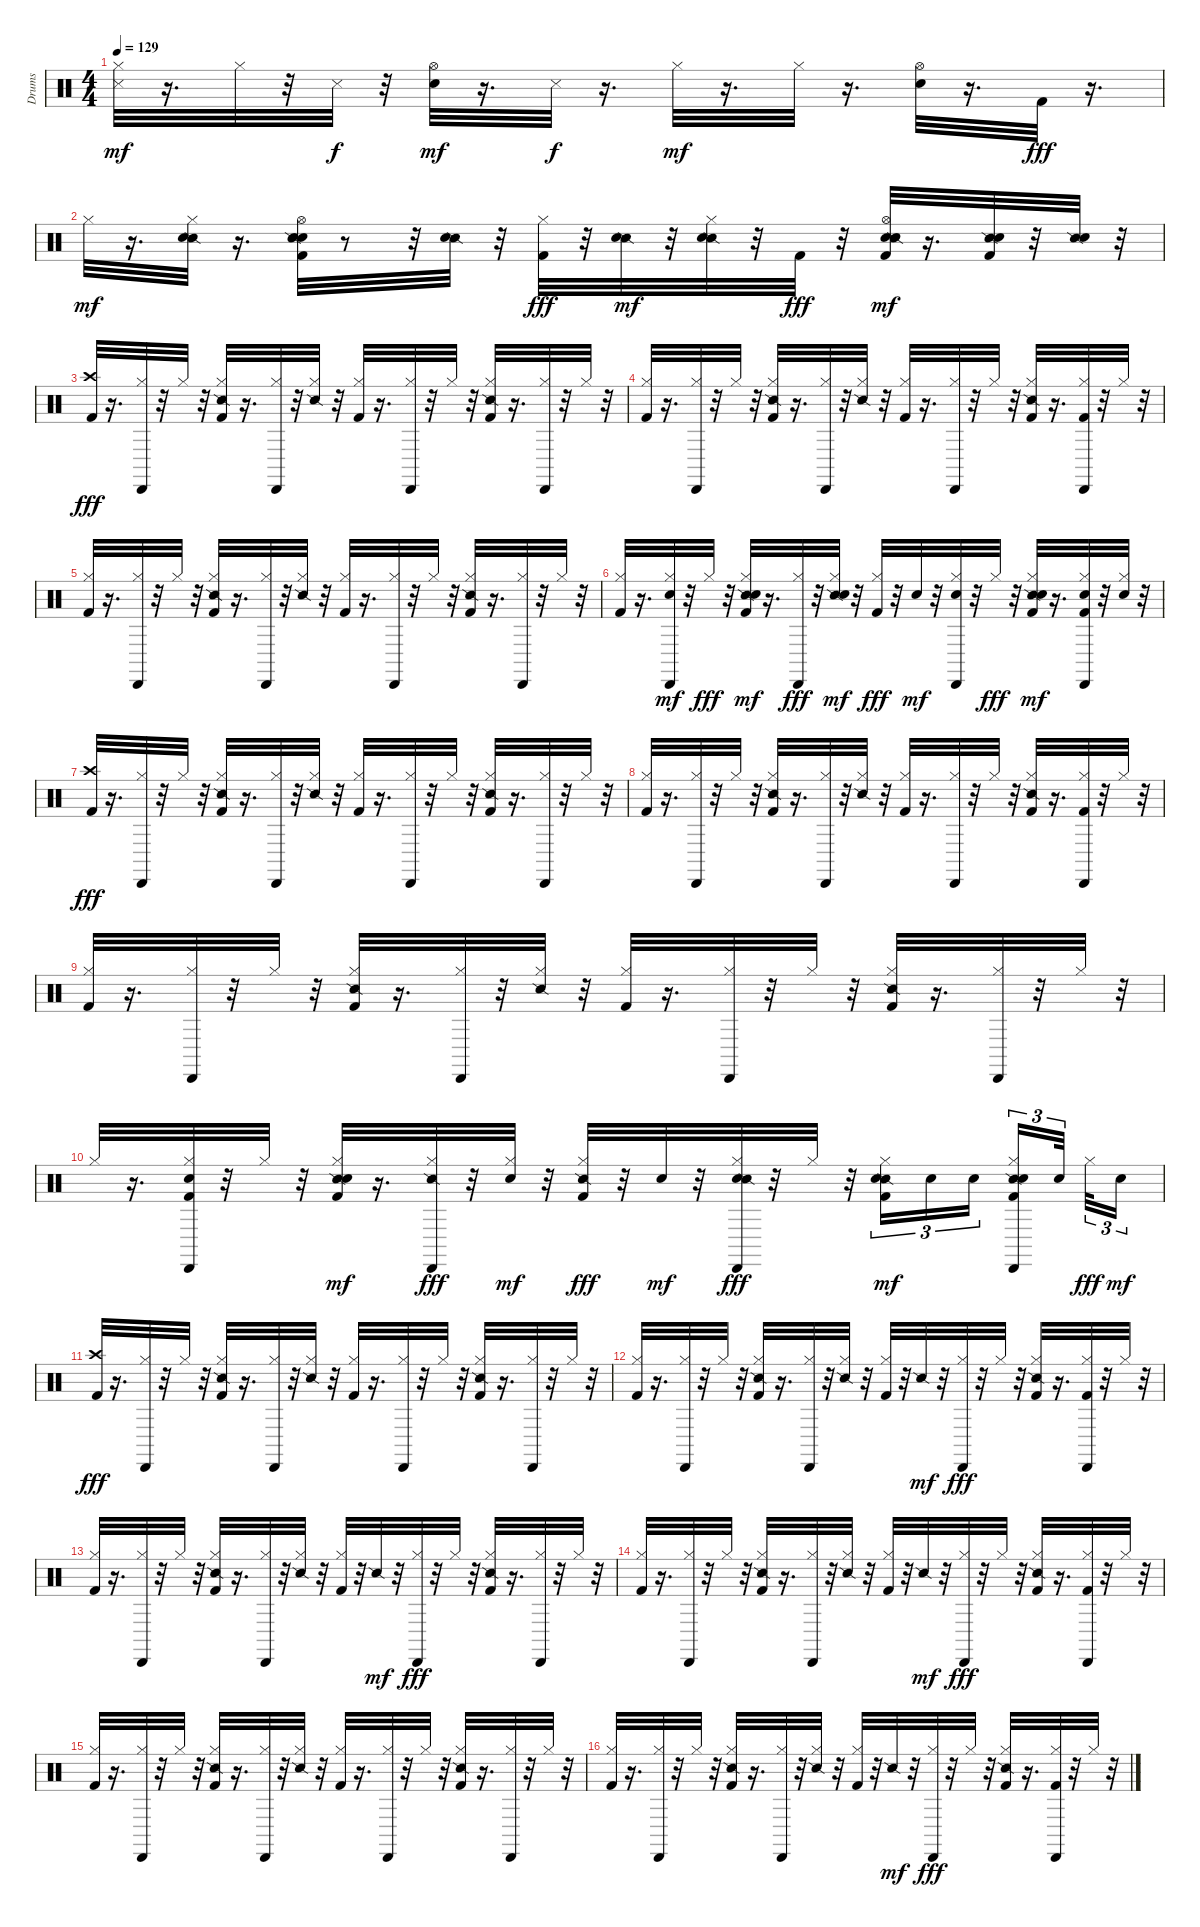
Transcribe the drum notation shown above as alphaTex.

\track ("Drums" "Drums") {instrument percussion}
\staff {score}
\articulation defaults
\ts (4 4)
\tempo 129
\clef neutral
\ks c
("Hi-Hat (closed)" "Metronome (hit)").32{dy mf} r.16{d} "Hi-Hat (closed)".32 r.32 "Metronome (hit)".32{dy f} r.32 ("Snare (hit)" "Hi-Hat (open)").32{dy mf} r.16{d} "Metronome (hit)".32{dy f} r.16{d} "Hi-Hat (closed)".32{dy mf} r.16{d} "Hi-Hat (closed)".32 r.16{d} ("Snare (hit)" "Hi-Hat (open)").32 r.16{d} "Kick (hit) 2".32{dy fff} r.16{d} |
"Hi-Hat (closed)".32{dy mf} r.16{d} ("Hi-Hat (closed)" "Snare (side stick) 2" "Hand Clap (hit)").32 r.16{d} ("Snare (hit)" "Hi-Hat (open)" "Kick (hit) 2" "Snare (side stick) 2" "Hand Clap (hit)").32 r.8 r.32 ("Snare (side stick) 2" "Hand Clap (hit)").32 r.32 ("Hi-Hat (closed)" "Kick (hit) 2").32{dy fff} r.32 ("Snare (side stick) 2" "Hand Clap (hit)").32{dy mf} r.32 ("Hi-Hat (closed)" "Snare (side stick) 2" "Hand Clap (hit)").32 r.32 "Kick (hit) 2".32{dy fff} r.32 ("Snare (hit)" "Hi-Hat (open)" "Kick (hit) 2" "Snare (side stick) 2" "Hand Clap (hit)").32{dy mf} r.16{d} ("Kick (hit) 2" "Snare (side stick) 2" "Hand Clap (hit)").32 r.32 ("Snare (side stick) 2" "Hand Clap (hit)").32 r.32 |
("Kick (hit) 2" "Crash high (hit)").32{dy fff} r.16{d} ("Cabasa (hit)" "Hi-Hat (closed)").32 r.32 "Hi-Hat (closed)".32 r.32 ("Snare (side stick) 2" "Hi-Hat (closed)" "Kick (hit) 2").32 r.16{d} ("Cabasa (hit)" "Hi-Hat (closed)").32 r.32 ("Snare (side stick) 2" "Hi-Hat (closed)").32 r.32 ("Kick (hit) 2" "Hi-Hat (closed)").32 r.16{d} ("Cabasa (hit)" "Hi-Hat (closed)").32 r.32 "Hi-Hat (closed)".32 r.32 ("Snare (side stick) 2" "Hi-Hat (closed)" "Kick (hit) 2").32 r.16{d} ("Cabasa (hit)" "Hi-Hat (closed)").32 r.32 "Hi-Hat (closed)".32 r.32 |
("Kick (hit) 2" "Hi-Hat (closed)").32 r.16{d} ("Cabasa (hit)" "Hi-Hat (closed)").32 r.32 "Hi-Hat (closed)".32 r.32 ("Snare (side stick) 2" "Hi-Hat (closed)" "Kick (hit) 2").32 r.16{d} ("Cabasa (hit)" "Hi-Hat (closed)").32 r.32 ("Snare (side stick) 2" "Hi-Hat (closed)").32 r.32 ("Kick (hit) 2" "Hi-Hat (closed)").32 r.16{d} ("Cabasa (hit)" "Hi-Hat (closed)").32 r.32 "Hi-Hat (closed)".32 r.32 ("Snare (side stick) 2" "Hi-Hat (closed)" "Kick (hit) 2").32 r.16{d} ("Kick (hit) 2" "Cabasa (hit)" "Hi-Hat (closed)").32 r.32 "Hi-Hat (closed)".32 r.32 |
("Kick (hit) 2" "Hi-Hat (closed)").32 r.16{d} ("Cabasa (hit)" "Hi-Hat (closed)").32 r.32 "Hi-Hat (closed)".32 r.32 ("Snare (side stick) 2" "Hi-Hat (closed)" "Kick (hit) 2").32 r.16{d} ("Cabasa (hit)" "Hi-Hat (closed)").32 r.32 ("Snare (side stick) 2" "Hi-Hat (closed)").32 r.32 ("Kick (hit) 2" "Hi-Hat (closed)").32 r.16{d} ("Cabasa (hit)" "Hi-Hat (closed)").32 r.32 "Hi-Hat (closed)".32 r.32 ("Snare (side stick) 2" "Hi-Hat (closed)" "Kick (hit) 2").32 r.16{d} ("Cabasa (hit)" "Hi-Hat (closed)").32 r.32 "Hi-Hat (closed)".32 r.32 |
("Kick (hit) 2" "Hi-Hat (closed)").32 r.16{d} ("Cabasa (hit)" "Hi-Hat (closed)" "Hand Clap (hit)").32{dy mf} r.32 "Hi-Hat (closed)".32{dy fff} r.32 ("Snare (side stick) 2" "Hi-Hat (closed)" "Kick (hit) 2" "Hand Clap (hit)").32{dy mf} r.16{d} ("Cabasa (hit)" "Hi-Hat (closed)").32{dy fff} r.32 ("Snare (side stick) 2" "Hi-Hat (closed)" "Hand Clap (hit)").32{dy mf} r.32 ("Kick (hit) 2" "Hi-Hat (closed)").32{dy fff} r.32 "Hand Clap (hit)".32{dy mf} r.32 ("Cabasa (hit)" "Hi-Hat (closed)" "Hand Clap (hit)").32 r.32 "Hi-Hat (closed)".32{dy fff} r.32 ("Snare (side stick) 2" "Hi-Hat (closed)" "Kick (hit) 2" "Hand Clap (hit)").32{dy mf} r.16{d} ("Kick (hit) 2" "Cabasa (hit)" "Hi-Hat (closed)" "Hand Clap (hit)").32 r.32 ("Hi-Hat (closed)" "Hand Clap (hit)").32 r.32 |
("Kick (hit) 2" "Crash high (hit)").32{dy fff} r.16{d} ("Cabasa (hit)" "Hi-Hat (closed)").32 r.32 "Hi-Hat (closed)".32 r.32 ("Snare (side stick) 2" "Hi-Hat (closed)" "Kick (hit) 2").32 r.16{d} ("Cabasa (hit)" "Hi-Hat (closed)").32 r.32 ("Snare (side stick) 2" "Hi-Hat (closed)").32 r.32 ("Kick (hit) 2" "Hi-Hat (closed)").32 r.16{d} ("Cabasa (hit)" "Hi-Hat (closed)").32 r.32 "Hi-Hat (closed)".32 r.32 ("Snare (side stick) 2" "Hi-Hat (closed)" "Kick (hit) 2").32 r.16{d} ("Cabasa (hit)" "Hi-Hat (closed)").32 r.32 "Hi-Hat (closed)".32 r.32 |
("Kick (hit) 2" "Hi-Hat (closed)").32 r.16{d} ("Cabasa (hit)" "Hi-Hat (closed)").32 r.32 "Hi-Hat (closed)".32 r.32 ("Snare (side stick) 2" "Hi-Hat (closed)" "Kick (hit) 2").32 r.16{d} ("Cabasa (hit)" "Hi-Hat (closed)").32 r.32 ("Snare (side stick) 2" "Hi-Hat (closed)").32 r.32 ("Kick (hit) 2" "Hi-Hat (closed)").32 r.16{d} ("Cabasa (hit)" "Hi-Hat (closed)").32 r.32 "Hi-Hat (closed)".32 r.32 ("Snare (side stick) 2" "Hi-Hat (closed)" "Kick (hit) 2").32 r.16{d} ("Kick (hit) 2" "Cabasa (hit)" "Hi-Hat (closed)").32 r.32 "Hi-Hat (closed)".32 r.32 |
("Kick (hit) 2" "Hi-Hat (closed)").32 r.16{d} ("Cabasa (hit)" "Hi-Hat (closed)").32 r.32 "Hi-Hat (closed)".32 r.32 ("Snare (side stick) 2" "Hi-Hat (closed)" "Kick (hit) 2").32 r.16{d} ("Cabasa (hit)" "Hi-Hat (closed)").32 r.32 ("Snare (side stick) 2" "Hi-Hat (closed)").32 r.32 ("Kick (hit) 2" "Hi-Hat (closed)").32 r.16{d} ("Cabasa (hit)" "Hi-Hat (closed)").32 r.32 "Hi-Hat (closed)".32 r.32 ("Snare (side stick) 2" "Hi-Hat (closed)" "Kick (hit) 2").32 r.16{d} ("Cabasa (hit)" "Hi-Hat (closed)").32 r.32 "Hi-Hat (closed)".32 r.32 |
"Hi-Hat (closed)".32 r.16{d} ("Cabasa (hit)" "Hi-Hat (closed)" "Hand Clap (hit)" "Kick (hit) 2").32 r.32 "Hi-Hat (closed)".32 r.32 ("Snare (side stick) 2" "Hi-Hat (closed)" "Kick (hit) 2" "Hand Clap (hit)").32{dy mf} r.16{d} ("Cabasa (hit)" "Hi-Hat (closed)" "Snare (side stick) 2").32{dy fff} r.32 ("Hi-Hat (closed)" "Hand Clap (hit)").32{dy mf} r.32 ("Kick (hit) 2" "Hi-Hat (closed)" "Snare (side stick) 2").32{dy fff} r.32 "Hand Clap (hit)".32{dy mf} r.32 ("Cabasa (hit)" "Hi-Hat (closed)" "Hand Clap (hit)" "Snare (side stick) 2").32{dy fff} r.32 "Hi-Hat (closed)".32 r.32 ("Snare (side stick) 2" "Hi-Hat (closed)" "Kick (hit) 2" "Hand Clap (hit)").16{tu (3 2) dy mf} "Hand Clap (hit)".16{tu (3 2)} "Hand Clap (hit)".16{tu (3 2) beam splitsecondary} ("Kick (hit) 2" "Cabasa (hit)" "Hi-Hat (closed)" "Snare (side stick) 2" "Hand Clap (hit)").16{tu (3 2)} "Hand Clap (hit)".32{tu (3 2) beam splitsecondary} "Hi-Hat (closed)".32{tu (3 2) dy fff} "Hand Clap (hit)".16{tu (3 2) dy mf} |
("Kick (hit) 2" "Crash high (hit)").32{dy fff} r.16{d} ("Cabasa (hit)" "Hi-Hat (closed)").32 r.32 "Hi-Hat (closed)".32 r.32 ("Snare (side stick) 2" "Hi-Hat (closed)" "Kick (hit) 2").32 r.16{d} ("Cabasa (hit)" "Hi-Hat (closed)").32 r.32 ("Snare (side stick) 2" "Hi-Hat (closed)").32 r.32 ("Kick (hit) 2" "Hi-Hat (closed)").32 r.16{d} ("Cabasa (hit)" "Hi-Hat (closed)").32 r.32 "Hi-Hat (closed)".32 r.32 ("Snare (side stick) 2" "Hi-Hat (closed)" "Kick (hit) 2").32 r.16{d} ("Cabasa (hit)" "Hi-Hat (closed)").32 r.32 "Hi-Hat (closed)".32 r.32 |
("Kick (hit) 2" "Hi-Hat (closed)").32 r.16{d} ("Cabasa (hit)" "Hi-Hat (closed)").32 r.32 "Hi-Hat (closed)".32 r.32 ("Snare (side stick) 2" "Hi-Hat (closed)" "Kick (hit) 2").32 r.16{d} ("Cabasa (hit)" "Hi-Hat (closed)").32 r.32 ("Snare (side stick) 2" "Hi-Hat (closed)").32 r.32 ("Kick (hit) 2" "Hi-Hat (closed)").32 r.32 "Snare (side stick) 2".32{dy mf} r.32 ("Cabasa (hit)" "Hi-Hat (closed)").32{dy fff} r.32 "Hi-Hat (closed)".32 r.32 ("Snare (side stick) 2" "Hi-Hat (closed)" "Kick (hit) 2").32 r.16{d} ("Kick (hit) 2" "Cabasa (hit)" "Hi-Hat (closed)").32 r.32 "Hi-Hat (closed)".32 r.32 |
("Kick (hit) 2" "Hi-Hat (closed)").32 r.16{d} ("Cabasa (hit)" "Hi-Hat (closed)").32 r.32 "Hi-Hat (closed)".32 r.32 ("Snare (side stick) 2" "Hi-Hat (closed)" "Kick (hit) 2").32 r.16{d} ("Cabasa (hit)" "Hi-Hat (closed)").32 r.32 ("Snare (side stick) 2" "Hi-Hat (closed)").32 r.32 ("Kick (hit) 2" "Hi-Hat (closed)").32 r.32 "Snare (side stick) 2".32{dy mf} r.32 ("Cabasa (hit)" "Hi-Hat (closed)").32{dy fff} r.32 "Hi-Hat (closed)".32 r.32 ("Snare (side stick) 2" "Hi-Hat (closed)" "Kick (hit) 2").32 r.16{d} ("Cabasa (hit)" "Hi-Hat (closed)").32 r.32 "Hi-Hat (closed)".32 r.32 |
("Kick (hit) 2" "Hi-Hat (closed)").32 r.16{d} ("Cabasa (hit)" "Hi-Hat (closed)").32 r.32 "Hi-Hat (closed)".32 r.32 ("Snare (side stick) 2" "Hi-Hat (closed)" "Kick (hit) 2").32 r.16{d} ("Cabasa (hit)" "Hi-Hat (closed)").32 r.32 ("Snare (side stick) 2" "Hi-Hat (closed)").32 r.32 ("Kick (hit) 2" "Hi-Hat (closed)").32 r.32 "Snare (side stick) 2".32{dy mf} r.32 ("Cabasa (hit)" "Hi-Hat (closed)").32{dy fff} r.32 "Hi-Hat (closed)".32 r.32 ("Snare (side stick) 2" "Hi-Hat (closed)" "Kick (hit) 2").32 r.16{d} ("Kick (hit) 2" "Cabasa (hit)" "Hi-Hat (closed)").32 r.32 "Hi-Hat (closed)".32 r.32 |
("Kick (hit) 2" "Hi-Hat (closed)").32 r.16{d} ("Cabasa (hit)" "Hi-Hat (closed)").32 r.32 "Hi-Hat (closed)".32 r.32 ("Snare (side stick) 2" "Hi-Hat (closed)" "Kick (hit) 2").32 r.16{d} ("Cabasa (hit)" "Hi-Hat (closed)").32 r.32 ("Snare (side stick) 2" "Hi-Hat (closed)").32 r.32 ("Kick (hit) 2" "Hi-Hat (closed)").32 r.16{d} ("Cabasa (hit)" "Hi-Hat (closed)").32 r.32 "Hi-Hat (closed)".32 r.32 ("Snare (side stick) 2" "Hi-Hat (closed)" "Kick (hit) 2").32 r.16{d} ("Cabasa (hit)" "Hi-Hat (closed)").32 r.32 "Hi-Hat (closed)".32 r.32 |
("Kick (hit) 2" "Hi-Hat (closed)").32 r.16{d} ("Cabasa (hit)" "Hi-Hat (closed)").32 r.32 "Hi-Hat (closed)".32 r.32 ("Snare (side stick) 2" "Hi-Hat (closed)" "Kick (hit) 2").32 r.16{d} ("Cabasa (hit)" "Hi-Hat (closed)").32 r.32 ("Snare (side stick) 2" "Hi-Hat (closed)").32 r.32 ("Kick (hit) 2" "Hi-Hat (closed)").32 r.32 "Snare (side stick) 2".32{dy mf} r.32 ("Cabasa (hit)" "Hi-Hat (closed)").32{dy fff} r.32 "Hi-Hat (closed)".32 r.32 ("Snare (side stick) 2" "Hi-Hat (closed)" "Kick (hit) 2").32 r.16{d} ("Kick (hit) 2" "Cabasa (hit)" "Hi-Hat (closed)").32 r.32 "Hi-Hat (closed)".32 r.32
